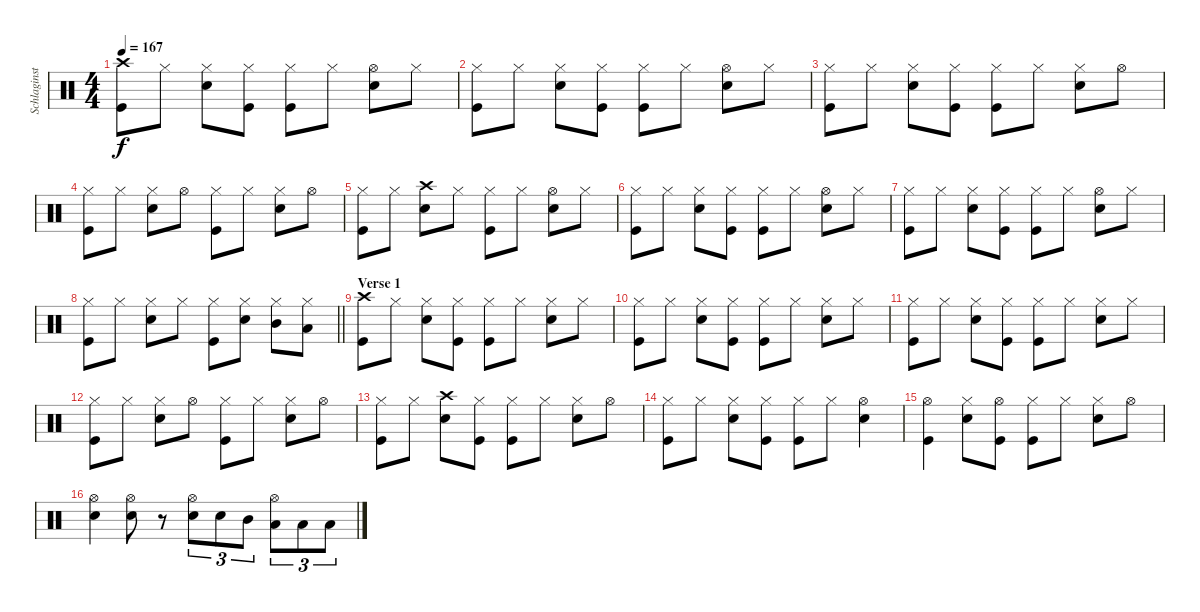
\track ("Schlaginstrumente - Auswahl" "Schlaginst") {instrument percussion}
\staff {score}
\articulation defaults
\ts (4 4)
\tempo 167
\clef neutral
\ks c
("Crash high (hit)" "Kick (hit)").8{dy f} "Hi-Hat (closed)".8 ("Hi-Hat (closed)" "Snare (hit) 2").8 ("Hi-Hat (closed)" "Kick (hit)").8 ("Hi-Hat (closed)" "Kick (hit)").8 "Hi-Hat (closed)".8 ("Hi-Hat (open)" "Snare (hit) 2").8 "Hi-Hat (closed)".8 |
("Hi-Hat (closed)" "Kick (hit)").8 "Hi-Hat (closed)".8 ("Hi-Hat (closed)" "Snare (hit) 2").8 ("Hi-Hat (closed)" "Kick (hit)").8 ("Hi-Hat (closed)" "Kick (hit)").8 "Hi-Hat (closed)".8 ("Hi-Hat (open)" "Snare (hit) 2").8 "Hi-Hat (closed)".8 |
("Hi-Hat (closed)" "Kick (hit)").8 "Hi-Hat (closed)".8 ("Hi-Hat (closed)" "Snare (hit) 2").8 ("Hi-Hat (closed)" "Kick (hit)").8 ("Hi-Hat (closed)" "Kick (hit)").8 "Hi-Hat (closed)".8 ("Hi-Hat (closed)" "Snare (hit) 2").8 "Hi-Hat (open)".8 |
("Hi-Hat (closed)" "Kick (hit)").8 "Hi-Hat (closed)".8 ("Hi-Hat (closed)" "Snare (hit) 2").8 "Hi-Hat (open)".8 ("Hi-Hat (closed)" "Kick (hit)").8 "Hi-Hat (closed)".8 ("Hi-Hat (closed)" "Snare (hit) 2").8 "Hi-Hat (open)".8 |
("Hi-Hat (closed)" "Kick (hit)").8 "Hi-Hat (closed)".8 ("Crash high (hit)" "Snare (hit) 2").8 "Hi-Hat (closed)".8 ("Hi-Hat (closed)" "Kick (hit)").8 "Hi-Hat (closed)".8 ("Hi-Hat (open)" "Snare (hit) 2").8 "Hi-Hat (closed)".8 |
("Hi-Hat (closed)" "Kick (hit)").8 "Hi-Hat (closed)".8 ("Hi-Hat (closed)" "Snare (hit) 2").8 ("Hi-Hat (closed)" "Kick (hit)").8 ("Hi-Hat (closed)" "Kick (hit)").8 "Hi-Hat (closed)".8 ("Hi-Hat (open)" "Snare (hit) 2").8 "Hi-Hat (closed)".8 |
("Hi-Hat (closed)" "Kick (hit)").8 "Hi-Hat (closed)".8 ("Hi-Hat (closed)" "Snare (hit) 2").8 ("Hi-Hat (closed)" "Kick (hit)").8 ("Hi-Hat (closed)" "Kick (hit)").8 "Hi-Hat (closed)".8 ("Hi-Hat (open)" "Snare (hit) 2").8 "Hi-Hat (closed)".8 |
\barLineRight lightlight
("Hi-Hat (closed)" "Kick (hit)").8 "Hi-Hat (closed)".8 ("Hi-Hat (closed)" "Snare (hit) 2").8 "Hi-Hat (closed)".8 ("Hi-Hat (closed)" "Kick (hit)").8 ("Hi-Hat (closed)" "Snare (hit) 2").8 ("Hi-Hat (closed)" "Mid Tom (hit)").8 ("Hi-Hat (closed)" "Low Tom (hit)").8 |
\section ("" "Verse 1")
("Crash high (hit)" "Kick (hit)").8 "Hi-Hat (closed)".8 ("Hi-Hat (closed)" "Snare (hit) 2").8 ("Hi-Hat (closed)" "Kick (hit)").8 ("Hi-Hat (closed)" "Kick (hit)").8 "Hi-Hat (closed)".8 ("Hi-Hat (closed)" "Snare (hit) 2").8 "Hi-Hat (closed)".8 |
("Hi-Hat (closed)" "Kick (hit)").8 "Hi-Hat (closed)".8 ("Hi-Hat (closed)" "Snare (hit) 2").8 ("Hi-Hat (closed)" "Kick (hit)").8 ("Hi-Hat (closed)" "Kick (hit)").8 "Hi-Hat (closed)".8 ("Hi-Hat (closed)" "Snare (hit) 2").8 "Hi-Hat (closed)".8 |
("Hi-Hat (closed)" "Kick (hit)").8 "Hi-Hat (closed)".8 ("Hi-Hat (closed)" "Snare (hit) 2").8 ("Hi-Hat (closed)" "Kick (hit)").8 ("Hi-Hat (closed)" "Kick (hit)").8 "Hi-Hat (closed)".8 ("Hi-Hat (closed)" "Snare (hit) 2").8 "Hi-Hat (closed)".8 |
("Hi-Hat (closed)" "Kick (hit)").8 "Hi-Hat (closed)".8 ("Hi-Hat (closed)" "Snare (hit) 2").8 "Hi-Hat (open)".8 ("Hi-Hat (closed)" "Kick (hit)").8 "Hi-Hat (closed)".8 ("Hi-Hat (closed)" "Snare (hit) 2").8 "Hi-Hat (open)".8 |
("Hi-Hat (closed)" "Kick (hit)").8 "Hi-Hat (closed)".8 ("Crash high (hit)" "Snare (hit) 2").8 ("Hi-Hat (closed)" "Kick (hit)").8 ("Hi-Hat (closed)" "Kick (hit)").8 "Hi-Hat (closed)".8 ("Hi-Hat (closed)" "Snare (hit) 2").8 "Hi-Hat (open)".8 |
("Hi-Hat (closed)" "Kick (hit)").8 "Hi-Hat (closed)".8 ("Hi-Hat (closed)" "Snare (hit) 2").8 ("Hi-Hat (closed)" "Kick (hit)").8 ("Hi-Hat (closed)" "Kick (hit)").8 "Hi-Hat (closed)".8 ("Hi-Hat (open)" "Snare (hit) 2").4 |
("Hi-Hat (open)" "Kick (hit)").4 ("Hi-Hat (closed)" "Snare (hit) 2").8 ("Hi-Hat (open)" "Kick (hit)").8 ("Hi-Hat (closed)" "Kick (hit)").8 "Hi-Hat (closed)".8 ("Hi-Hat (closed)" "Snare (hit) 2").8 "Hi-Hat (open)".8 |
("Hi-Hat (open)" "Snare (hit) 2").4 ("Hi-Hat (open)" "Snare (hit) 2").8 r.8 ("Hi-Hat (open)" "Snare (hit) 2").8{tu (3 2)} "Snare (hit) 2".8{tu (3 2)} "Mid Tom (hit)".8{tu (3 2)} ("Hi-Hat (open)" "Low Tom (hit)").8{tu (3 2)} "Low Tom (hit)".8{tu (3 2)} "Low Tom (hit)".8{tu (3 2)}
